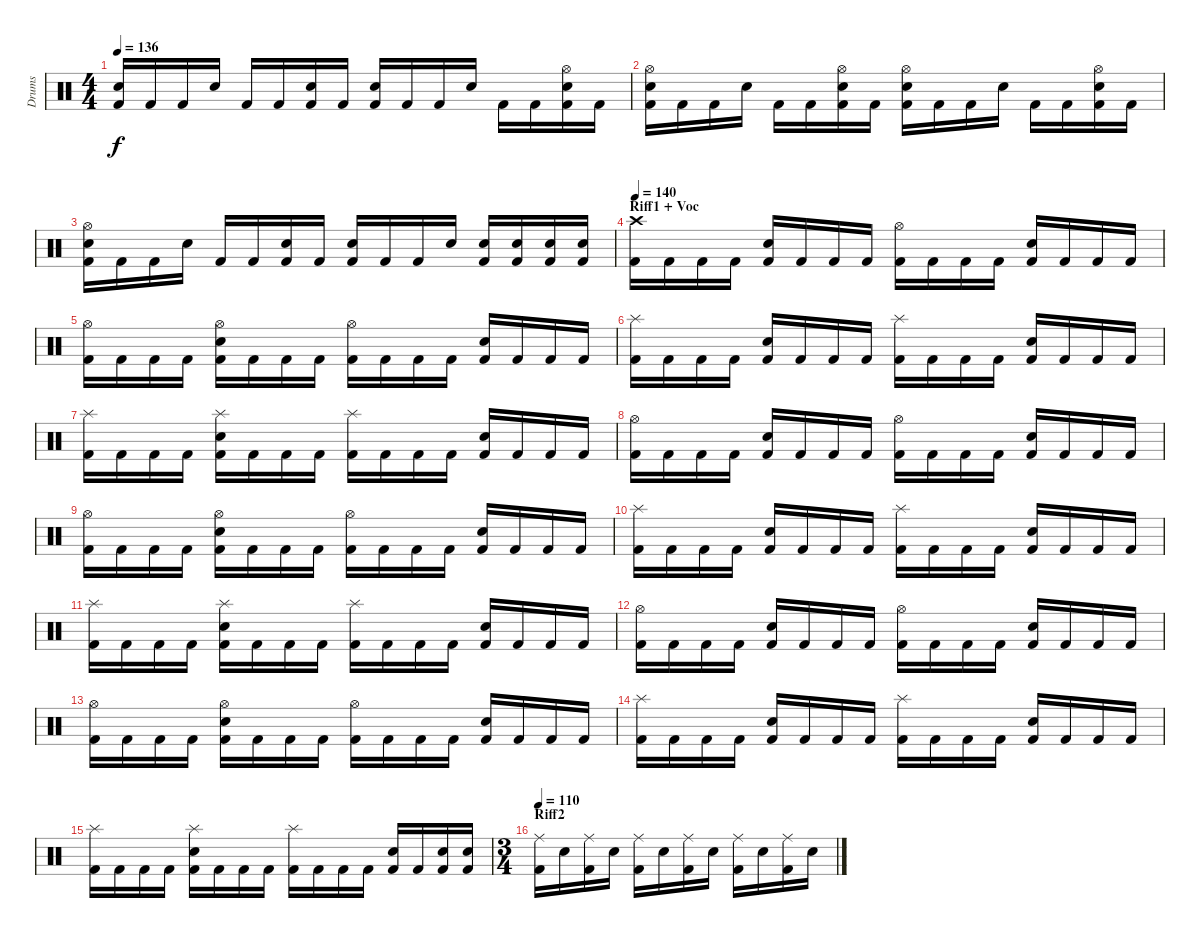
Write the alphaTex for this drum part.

\track ("Drums" "Drums") {instrument percussion}
\staff {score}
\articulation defaults
\ts (4 4)
\tempo 136
\clef neutral
\ks c
("Snare (hit) 2" "Kick (hit) 2").16{dy f} "Kick (hit) 2".16 "Kick (hit) 2".16 "Snare (hit) 2".16 "Kick (hit) 2".16 "Kick (hit) 2".16 ("Snare (hit) 2" "Kick (hit) 2").16 "Kick (hit) 2".16 ("Snare (hit) 2" "Kick (hit) 2").16 "Kick (hit) 2".16 "Kick (hit) 2".16 "Snare (hit) 2".16 "Kick (hit) 2".16 "Kick (hit) 2".16 ("Snare (hit) 2" "Hi-Hat (open)" "Kick (hit) 2").16 "Kick (hit) 2".16 |
("Snare (hit) 2" "Hi-Hat (open)" "Kick (hit) 2").16 "Kick (hit) 2".16 "Kick (hit) 2".16 "Snare (hit) 2".16 "Kick (hit) 2".16 "Kick (hit) 2".16 ("Snare (hit) 2" "Hi-Hat (open)" "Kick (hit) 2").16 "Kick (hit) 2".16 ("Snare (hit) 2" "Hi-Hat (open)" "Kick (hit) 2").16 "Kick (hit) 2".16 "Kick (hit) 2".16 "Snare (hit) 2".16 "Kick (hit) 2".16 "Kick (hit) 2".16 ("Snare (hit) 2" "Hi-Hat (open)" "Kick (hit) 2").16 "Kick (hit) 2".16 |
("Snare (hit) 2" "Hi-Hat (open)" "Kick (hit) 2").16 "Kick (hit) 2".16 "Kick (hit) 2".16 "Snare (hit) 2".16 "Kick (hit) 2".16 "Kick (hit) 2".16 ("Snare (hit) 2" "Kick (hit) 2").16 "Kick (hit) 2".16 ("Snare (hit) 2" "Kick (hit) 2").16 "Kick (hit) 2".16 "Kick (hit) 2".16 "Snare (hit) 2".16 ("Snare (hit) 2" "Kick (hit) 2").16 ("Snare (hit) 2" "Kick (hit) 2").16 ("Snare (hit) 2" "Kick (hit) 2").16 ("Snare (hit) 2" "Kick (hit) 2").16 |
\section ("" "Riff1 + Voc")
\tempo 140
("Crash high (hit)" "Kick (hit) 2").16 "Kick (hit) 2".16 "Kick (hit) 2".16 "Kick (hit) 2".16 ("Snare (hit) 2" "Kick (hit) 2").16 "Kick (hit) 2".16 "Kick (hit) 2".16 "Kick (hit) 2".16 ("Hi-Hat (open)" "Kick (hit) 2").16 "Kick (hit) 2".16 "Kick (hit) 2".16 "Kick (hit) 2".16 ("Snare (hit) 2" "Kick (hit) 2").16 "Kick (hit) 2".16 "Kick (hit) 2".16 "Kick (hit) 2".16 |
("Hi-Hat (open)" "Kick (hit) 2").16 "Kick (hit) 2".16 "Kick (hit) 2".16 "Kick (hit) 2".16 ("Hi-Hat (open)" "Snare (hit) 2" "Kick (hit) 2").16 "Kick (hit) 2".16 "Kick (hit) 2".16 "Kick (hit) 2".16 ("Hi-Hat (open)" "Kick (hit) 2").16 "Kick (hit) 2".16 "Kick (hit) 2".16 "Kick (hit) 2".16 ("Snare (hit) 2" "Kick (hit) 2").16 "Kick (hit) 2".16 "Kick (hit) 2".16 "Kick (hit) 2".16 |
("Splash (hit)" "Kick (hit) 2").16 "Kick (hit) 2".16 "Kick (hit) 2".16 "Kick (hit) 2".16 ("Snare (hit) 2" "Kick (hit) 2").16 "Kick (hit) 2".16 "Kick (hit) 2".16 "Kick (hit) 2".16 ("Splash (hit)" "Kick (hit) 2").16 "Kick (hit) 2".16 "Kick (hit) 2".16 "Kick (hit) 2".16 ("Snare (hit) 2" "Kick (hit) 2").16 "Kick (hit) 2".16 "Kick (hit) 2".16 "Kick (hit) 2".16 |
("Splash (hit)" "Kick (hit) 2").16 "Kick (hit) 2".16 "Kick (hit) 2".16 "Kick (hit) 2".16 ("Splash (hit)" "Snare (hit) 2" "Kick (hit) 2").16 "Kick (hit) 2".16 "Kick (hit) 2".16 "Kick (hit) 2".16 ("Splash (hit)" "Kick (hit) 2").16 "Kick (hit) 2".16 "Kick (hit) 2".16 "Kick (hit) 2".16 ("Snare (hit) 2" "Kick (hit) 2").16 "Kick (hit) 2".16 "Kick (hit) 2".16 "Kick (hit) 2".16 |
("Hi-Hat (open)" "Kick (hit) 2").16 "Kick (hit) 2".16 "Kick (hit) 2".16 "Kick (hit) 2".16 ("Snare (hit) 2" "Kick (hit) 2").16 "Kick (hit) 2".16 "Kick (hit) 2".16 "Kick (hit) 2".16 ("Hi-Hat (open)" "Kick (hit) 2").16 "Kick (hit) 2".16 "Kick (hit) 2".16 "Kick (hit) 2".16 ("Snare (hit) 2" "Kick (hit) 2").16 "Kick (hit) 2".16 "Kick (hit) 2".16 "Kick (hit) 2".16 |
("Hi-Hat (open)" "Kick (hit) 2").16 "Kick (hit) 2".16 "Kick (hit) 2".16 "Kick (hit) 2".16 ("Hi-Hat (open)" "Snare (hit) 2" "Kick (hit) 2").16 "Kick (hit) 2".16 "Kick (hit) 2".16 "Kick (hit) 2".16 ("Hi-Hat (open)" "Kick (hit) 2").16 "Kick (hit) 2".16 "Kick (hit) 2".16 "Kick (hit) 2".16 ("Snare (hit) 2" "Kick (hit) 2").16 "Kick (hit) 2".16 "Kick (hit) 2".16 "Kick (hit) 2".16 |
("Splash (hit)" "Kick (hit) 2").16 "Kick (hit) 2".16 "Kick (hit) 2".16 "Kick (hit) 2".16 ("Snare (hit) 2" "Kick (hit) 2").16 "Kick (hit) 2".16 "Kick (hit) 2".16 "Kick (hit) 2".16 ("Splash (hit)" "Kick (hit) 2").16 "Kick (hit) 2".16 "Kick (hit) 2".16 "Kick (hit) 2".16 ("Snare (hit) 2" "Kick (hit) 2").16 "Kick (hit) 2".16 "Kick (hit) 2".16 "Kick (hit) 2".16 |
("Splash (hit)" "Kick (hit) 2").16 "Kick (hit) 2".16 "Kick (hit) 2".16 "Kick (hit) 2".16 ("Splash (hit)" "Snare (hit) 2" "Kick (hit) 2").16 "Kick (hit) 2".16 "Kick (hit) 2".16 "Kick (hit) 2".16 ("Splash (hit)" "Kick (hit) 2").16 "Kick (hit) 2".16 "Kick (hit) 2".16 "Kick (hit) 2".16 ("Snare (hit) 2" "Kick (hit) 2").16 "Kick (hit) 2".16 "Kick (hit) 2".16 "Kick (hit) 2".16 |
("Hi-Hat (open)" "Kick (hit) 2").16 "Kick (hit) 2".16 "Kick (hit) 2".16 "Kick (hit) 2".16 ("Snare (hit) 2" "Kick (hit) 2").16 "Kick (hit) 2".16 "Kick (hit) 2".16 "Kick (hit) 2".16 ("Hi-Hat (open)" "Kick (hit) 2").16 "Kick (hit) 2".16 "Kick (hit) 2".16 "Kick (hit) 2".16 ("Snare (hit) 2" "Kick (hit) 2").16 "Kick (hit) 2".16 "Kick (hit) 2".16 "Kick (hit) 2".16 |
("Hi-Hat (open)" "Kick (hit) 2").16 "Kick (hit) 2".16 "Kick (hit) 2".16 "Kick (hit) 2".16 ("Hi-Hat (open)" "Snare (hit) 2" "Kick (hit) 2").16 "Kick (hit) 2".16 "Kick (hit) 2".16 "Kick (hit) 2".16 ("Hi-Hat (open)" "Kick (hit) 2").16 "Kick (hit) 2".16 "Kick (hit) 2".16 "Kick (hit) 2".16 ("Snare (hit) 2" "Kick (hit) 2").16 "Kick (hit) 2".16 "Kick (hit) 2".16 "Kick (hit) 2".16 |
("Splash (hit)" "Kick (hit) 2").16 "Kick (hit) 2".16 "Kick (hit) 2".16 "Kick (hit) 2".16 ("Snare (hit) 2" "Kick (hit) 2").16 "Kick (hit) 2".16 "Kick (hit) 2".16 "Kick (hit) 2".16 ("Splash (hit)" "Kick (hit) 2").16 "Kick (hit) 2".16 "Kick (hit) 2".16 "Kick (hit) 2".16 ("Snare (hit) 2" "Kick (hit) 2").16 "Kick (hit) 2".16 "Kick (hit) 2".16 "Kick (hit) 2".16 |
("Splash (hit)" "Kick (hit) 2").16 "Kick (hit) 2".16 "Kick (hit) 2".16 "Kick (hit) 2".16 ("Splash (hit)" "Snare (hit) 2" "Kick (hit) 2").16 "Kick (hit) 2".16 "Kick (hit) 2".16 "Kick (hit) 2".16 ("Splash (hit)" "Kick (hit) 2").16 "Kick (hit) 2".16 "Kick (hit) 2".16 "Kick (hit) 2".16 ("Snare (hit) 2" "Kick (hit) 2").16 "Kick (hit) 2".16 ("Snare (hit) 2" "Kick (hit) 2").16 ("Snare (hit) 2" "Kick (hit) 2").16 |
\ts (3 4)
\section ("" "Riff2")
\tempo 110
("Ride (middle)" "Kick (hit) 2").16 "Snare (hit) 2".16 ("Ride (middle)" "Kick (hit) 2").16 "Snare (hit) 2".16 ("Ride (middle)" "Kick (hit) 2").16 "Snare (hit) 2".16 ("Ride (middle)" "Kick (hit) 2").16 "Snare (hit) 2".16 ("Ride (middle)" "Kick (hit) 2").16 "Snare (hit) 2".16 ("Ride (middle)" "Kick (hit) 2").16 "Snare (hit) 2".16
